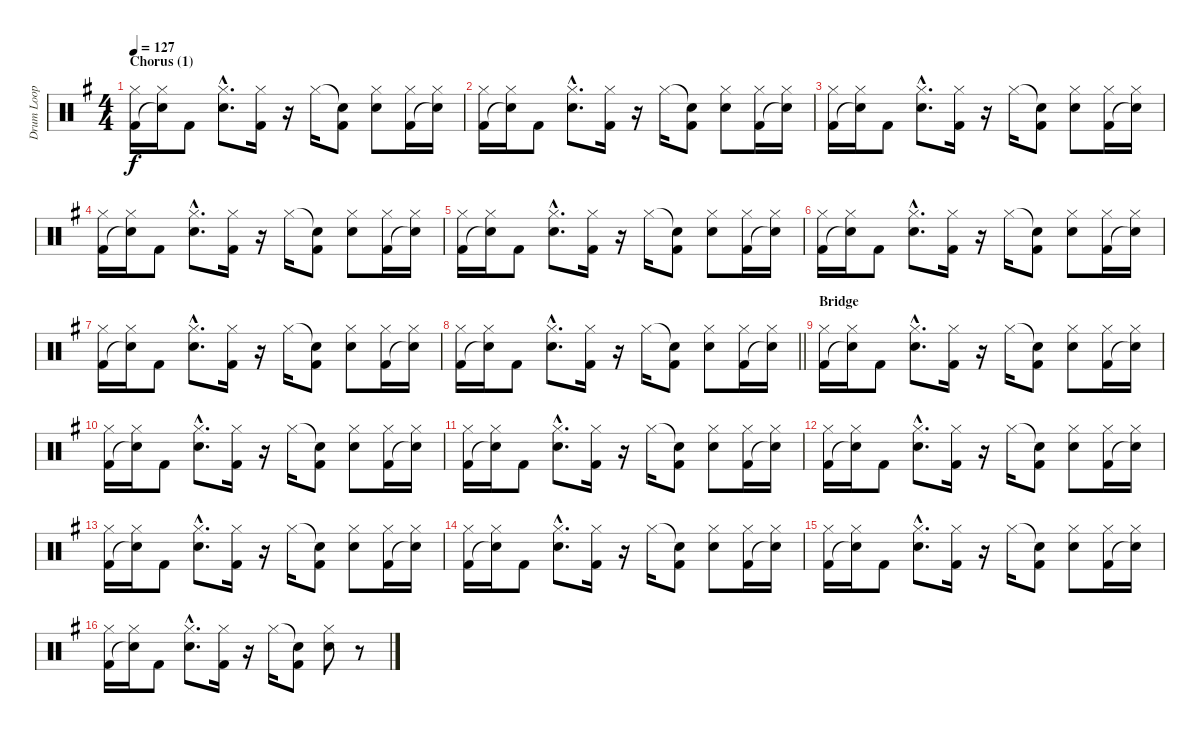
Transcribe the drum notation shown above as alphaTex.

\track ("Drum Loop" "Drum Loop") {instrument percussion}
\staff {score}
\articulation defaults
\ts (4 4)
\section ("" "Chorus (1)")
\tempo 127
\clef neutral
\ks eminor
("Hi-Hat (closed)" "Kick (hit) 2").16{dy f} ("Hi-Hat (closed)" "Snare (hit)"{t}).16 "Kick (hit) 2".8 ("Hi-Hat (closed)"{hac} "Electric Snare (hit)"{hac}).8{d} ("Hi-Hat (closed)" "Kick (hit) 2").16 r.16 "Hi-Hat (closed)".16 ("Snare (hit)"{t} "Kick (hit) 2").8 ("Hi-Hat (closed)" "Electric Snare (hit)").8 ("Hi-Hat (closed)" "Kick (hit) 2").16 ("Hi-Hat (closed)" "Snare (hit)"{t}).16 |
("Hi-Hat (closed)" "Kick (hit) 2").16 ("Hi-Hat (closed)" "Snare (hit)"{t}).16 "Kick (hit) 2".8 ("Hi-Hat (closed)"{hac} "Electric Snare (hit)"{hac}).8{d} ("Hi-Hat (closed)" "Kick (hit) 2").16 r.16 "Hi-Hat (closed)".16 ("Snare (hit)"{t} "Kick (hit) 2").8 ("Hi-Hat (closed)" "Electric Snare (hit)").8 ("Hi-Hat (closed)" "Kick (hit) 2").16 ("Hi-Hat (closed)" "Snare (hit)"{t}).16 |
("Hi-Hat (closed)" "Kick (hit) 2").16 ("Hi-Hat (closed)" "Snare (hit)"{t}).16 "Kick (hit) 2".8 ("Hi-Hat (closed)"{hac} "Electric Snare (hit)"{hac}).8{d} ("Hi-Hat (closed)" "Kick (hit) 2").16 r.16 "Hi-Hat (closed)".16 ("Snare (hit)"{t} "Kick (hit) 2").8 ("Hi-Hat (closed)" "Electric Snare (hit)").8 ("Hi-Hat (closed)" "Kick (hit) 2").16 ("Hi-Hat (closed)" "Snare (hit)"{t}).16 |
("Hi-Hat (closed)" "Kick (hit) 2").16 ("Hi-Hat (closed)" "Snare (hit)"{t}).16 "Kick (hit) 2".8 ("Hi-Hat (closed)"{hac} "Electric Snare (hit)"{hac}).8{d} ("Hi-Hat (closed)" "Kick (hit) 2").16 r.16 "Hi-Hat (closed)".16 ("Snare (hit)"{t} "Kick (hit) 2").8 ("Hi-Hat (closed)" "Electric Snare (hit)").8 ("Hi-Hat (closed)" "Kick (hit) 2").16 ("Hi-Hat (closed)" "Snare (hit)"{t}).16 |
("Hi-Hat (closed)" "Kick (hit) 2").16 ("Hi-Hat (closed)" "Snare (hit)"{t}).16 "Kick (hit) 2".8 ("Hi-Hat (closed)"{hac} "Electric Snare (hit)"{hac}).8{d} ("Hi-Hat (closed)" "Kick (hit) 2").16 r.16 "Hi-Hat (closed)".16 ("Snare (hit)"{t} "Kick (hit) 2").8 ("Hi-Hat (closed)" "Electric Snare (hit)").8 ("Hi-Hat (closed)" "Kick (hit) 2").16 ("Hi-Hat (closed)" "Snare (hit)"{t}).16 |
("Hi-Hat (closed)" "Kick (hit) 2").16 ("Hi-Hat (closed)" "Snare (hit)"{t}).16 "Kick (hit) 2".8 ("Hi-Hat (closed)"{hac} "Electric Snare (hit)"{hac}).8{d} ("Hi-Hat (closed)" "Kick (hit) 2").16 r.16 "Hi-Hat (closed)".16 ("Snare (hit)"{t} "Kick (hit) 2").8 ("Hi-Hat (closed)" "Electric Snare (hit)").8 ("Hi-Hat (closed)" "Kick (hit) 2").16 ("Hi-Hat (closed)" "Snare (hit)"{t}).16 |
("Hi-Hat (closed)" "Kick (hit) 2").16 ("Hi-Hat (closed)" "Snare (hit)"{t}).16 "Kick (hit) 2".8 ("Hi-Hat (closed)"{hac} "Electric Snare (hit)"{hac}).8{d} ("Hi-Hat (closed)" "Kick (hit) 2").16 r.16 "Hi-Hat (closed)".16 ("Snare (hit)"{t} "Kick (hit) 2").8 ("Hi-Hat (closed)" "Electric Snare (hit)").8 ("Hi-Hat (closed)" "Kick (hit) 2").16 ("Hi-Hat (closed)" "Snare (hit)"{t}).16 |
\barLineRight lightlight
("Hi-Hat (closed)" "Kick (hit) 2").16 ("Hi-Hat (closed)" "Snare (hit)"{t}).16 "Kick (hit) 2".8 ("Hi-Hat (closed)"{hac} "Electric Snare (hit)"{hac}).8{d} ("Hi-Hat (closed)" "Kick (hit) 2").16 r.16 "Hi-Hat (closed)".16 ("Snare (hit)"{t} "Kick (hit) 2").8 ("Hi-Hat (closed)" "Electric Snare (hit)").8 ("Hi-Hat (closed)" "Kick (hit) 2").16 ("Hi-Hat (closed)" "Snare (hit)"{t}).16 |
\section ("" "Bridge")
("Hi-Hat (closed)" "Kick (hit) 2").16 ("Hi-Hat (closed)" "Snare (hit)"{t}).16 "Kick (hit) 2".8 ("Hi-Hat (closed)"{hac} "Electric Snare (hit)"{hac}).8{d} ("Hi-Hat (closed)" "Kick (hit) 2").16 r.16 "Hi-Hat (closed)".16 ("Snare (hit)"{t} "Kick (hit) 2").8 ("Hi-Hat (closed)" "Electric Snare (hit)").8 ("Hi-Hat (closed)" "Kick (hit) 2").16 ("Hi-Hat (closed)" "Snare (hit)"{t}).16 |
("Hi-Hat (closed)" "Kick (hit) 2").16 ("Hi-Hat (closed)" "Snare (hit)"{t}).16 "Kick (hit) 2".8 ("Hi-Hat (closed)"{hac} "Electric Snare (hit)"{hac}).8{d} ("Hi-Hat (closed)" "Kick (hit) 2").16 r.16 "Hi-Hat (closed)".16 ("Snare (hit)"{t} "Kick (hit) 2").8 ("Hi-Hat (closed)" "Electric Snare (hit)").8 ("Hi-Hat (closed)" "Kick (hit) 2").16 ("Hi-Hat (closed)" "Snare (hit)"{t}).16 |
("Hi-Hat (closed)" "Kick (hit) 2").16 ("Hi-Hat (closed)" "Snare (hit)"{t}).16 "Kick (hit) 2".8 ("Hi-Hat (closed)"{hac} "Electric Snare (hit)"{hac}).8{d} ("Hi-Hat (closed)" "Kick (hit) 2").16 r.16 "Hi-Hat (closed)".16 ("Snare (hit)"{t} "Kick (hit) 2").8 ("Hi-Hat (closed)" "Electric Snare (hit)").8 ("Hi-Hat (closed)" "Kick (hit) 2").16 ("Hi-Hat (closed)" "Snare (hit)"{t}).16 |
("Hi-Hat (closed)" "Kick (hit) 2").16 ("Hi-Hat (closed)" "Snare (hit)"{t}).16 "Kick (hit) 2".8 ("Hi-Hat (closed)"{hac} "Electric Snare (hit)"{hac}).8{d} ("Hi-Hat (closed)" "Kick (hit) 2").16 r.16 "Hi-Hat (closed)".16 ("Snare (hit)"{t} "Kick (hit) 2").8 ("Hi-Hat (closed)" "Electric Snare (hit)").8 ("Hi-Hat (closed)" "Kick (hit) 2").16 ("Hi-Hat (closed)" "Snare (hit)"{t}).16 |
("Hi-Hat (closed)" "Kick (hit) 2").16 ("Hi-Hat (closed)" "Snare (hit)"{t}).16 "Kick (hit) 2".8 ("Hi-Hat (closed)"{hac} "Electric Snare (hit)"{hac}).8{d} ("Hi-Hat (closed)" "Kick (hit) 2").16 r.16 "Hi-Hat (closed)".16 ("Snare (hit)"{t} "Kick (hit) 2").8 ("Hi-Hat (closed)" "Electric Snare (hit)").8 ("Hi-Hat (closed)" "Kick (hit) 2").16 ("Hi-Hat (closed)" "Snare (hit)"{t}).16 |
("Hi-Hat (closed)" "Kick (hit) 2").16 ("Hi-Hat (closed)" "Snare (hit)"{t}).16 "Kick (hit) 2".8 ("Hi-Hat (closed)"{hac} "Electric Snare (hit)"{hac}).8{d} ("Hi-Hat (closed)" "Kick (hit) 2").16 r.16 "Hi-Hat (closed)".16 ("Snare (hit)"{t} "Kick (hit) 2").8 ("Hi-Hat (closed)" "Electric Snare (hit)").8 ("Hi-Hat (closed)" "Kick (hit) 2").16 ("Hi-Hat (closed)" "Snare (hit)"{t}).16 |
("Hi-Hat (closed)" "Kick (hit) 2").16 ("Hi-Hat (closed)" "Snare (hit)"{t}).16 "Kick (hit) 2".8 ("Hi-Hat (closed)"{hac} "Electric Snare (hit)"{hac}).8{d} ("Hi-Hat (closed)" "Kick (hit) 2").16 r.16 "Hi-Hat (closed)".16 ("Snare (hit)"{t} "Kick (hit) 2").8 ("Hi-Hat (closed)" "Electric Snare (hit)").8 ("Hi-Hat (closed)" "Kick (hit) 2").16 ("Hi-Hat (closed)" "Snare (hit)"{t}).16 |
("Hi-Hat (closed)" "Kick (hit) 2").16 ("Hi-Hat (closed)" "Snare (hit)"{t}).16 "Kick (hit) 2".8 ("Hi-Hat (closed)"{hac} "Electric Snare (hit)"{hac}).8{d} ("Hi-Hat (closed)" "Kick (hit) 2").16 r.16 "Hi-Hat (closed)".16 ("Snare (hit)"{t} "Kick (hit) 2").8 ("Hi-Hat (closed)" "Electric Snare (hit)").8 r.8
